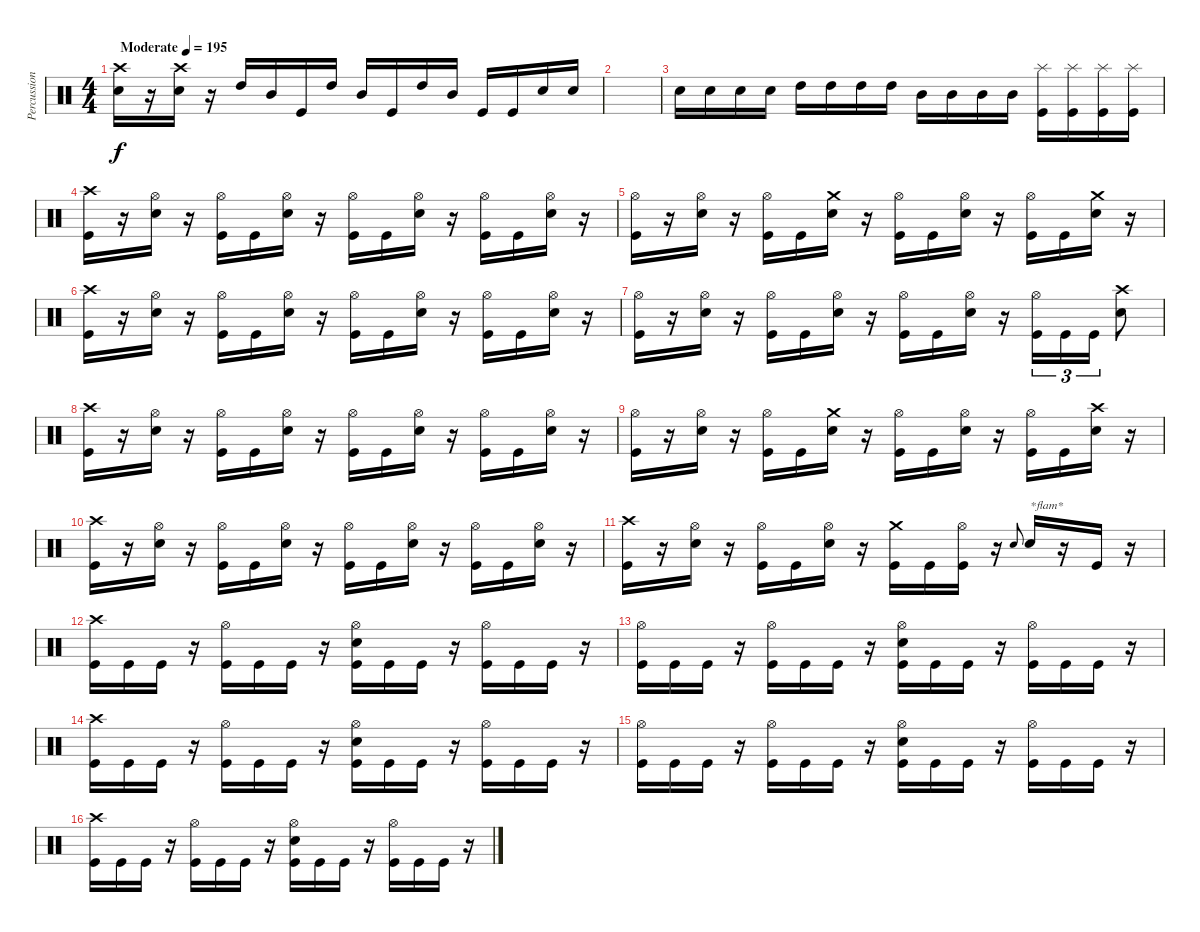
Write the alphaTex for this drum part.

\track ("Percussion" "Percussion") {instrument percussion}
\staff {score}
\articulation defaults
\ts (4 4)
\tempo (195 "Moderate")
\clef neutral
\ks c
("Crash high (hit)" "Electric Snare (hit)").16{dy f} r.16 ("Crash high (hit)" "Electric Snare (hit)").16 r.16 "High Tom (hit)".16 "Mid Tom (hit)".16 "Kick (hit)".16 "High Tom (hit)".16 "Mid Tom (hit)".16 "Kick (hit)".16 "High Tom (hit)".16 "Mid Tom (hit)".16 "Kick (hit)".16 "Kick (hit)".16 "Electric Snare (hit)".16 "Electric Snare (hit)".16 |
|
"Electric Snare (hit)".16 "Electric Snare (hit)".16 "Electric Snare (hit)".16 "Electric Snare (hit)".16 "High Tom (hit)".16 "High Tom (hit)".16 "High Tom (hit)".16 "High Tom (hit)".16 "Mid Tom (hit)".16 "Mid Tom (hit)".16 "Mid Tom (hit)".16 "Mid Tom (hit)".16 ("Splash (hit)" "Kick (hit)").16 ("Splash (hit)" "Kick (hit)").16 ("Splash (hit)" "Kick (hit)").16 ("Splash (hit)" "Kick (hit)").16 |
("Crash high (hit)" "Kick (hit)").16 r.16 ("Hi-Hat (open)" "Electric Snare (hit)").16 r.16 ("Hi-Hat (open)" "Kick (hit)").16 "Kick (hit)".16 ("Hi-Hat (open)" "Electric Snare (hit)").16 r.16 ("Hi-Hat (open)" "Kick (hit)").16 "Kick (hit)".16 ("Hi-Hat (open)" "Electric Snare (hit)").16 r.16 ("Hi-Hat (open)" "Kick (hit)").16 "Kick (hit)".16 ("Hi-Hat (open)" "Electric Snare (hit)").16 r.16 |
("Hi-Hat (open)" "Kick (hit)").16 r.16 ("Hi-Hat (open)" "Electric Snare (hit)").16 r.16 ("Hi-Hat (open)" "Kick (hit)").16 "Kick (hit)".16 ("Crash medium (hit)" "Electric Snare (hit)").16 r.16 ("Hi-Hat (open)" "Kick (hit)").16 "Kick (hit)".16 ("Hi-Hat (open)" "Electric Snare (hit)").16 r.16 ("Hi-Hat (open)" "Kick (hit)").16 "Kick (hit)".16 ("Crash medium (hit)" "Electric Snare (hit)").16 r.16 |
("Crash high (hit)" "Kick (hit)").16 r.16 ("Hi-Hat (open)" "Electric Snare (hit)").16 r.16 ("Hi-Hat (open)" "Kick (hit)").16 "Kick (hit)".16 ("Hi-Hat (open)" "Electric Snare (hit)").16 r.16 ("Hi-Hat (open)" "Kick (hit)").16 "Kick (hit)".16 ("Hi-Hat (open)" "Electric Snare (hit)").16 r.16 ("Hi-Hat (open)" "Kick (hit)").16 "Kick (hit)".16 ("Hi-Hat (open)" "Electric Snare (hit)").16 r.16 |
("Hi-Hat (open)" "Kick (hit)").16 r.16 ("Hi-Hat (open)" "Electric Snare (hit)").16 r.16 ("Hi-Hat (open)" "Kick (hit)").16 "Kick (hit)".16 ("Hi-Hat (open)" "Electric Snare (hit)").16 r.16 ("Hi-Hat (open)" "Kick (hit)").16 "Kick (hit)".16 ("Hi-Hat (open)" "Electric Snare (hit)").16 r.16 ("Hi-Hat (open)" "Kick (hit)").16{tu (3 2)} "Kick (hit)".16{tu (3 2)} "Kick (hit)".16{tu (3 2)} ("Crash high (hit)" "Electric Snare (hit)").8 |
("Crash high (hit)" "Kick (hit)").16 r.16 ("Hi-Hat (open)" "Electric Snare (hit)").16 r.16 ("Hi-Hat (open)" "Kick (hit)").16 "Kick (hit)".16 ("Hi-Hat (open)" "Electric Snare (hit)").16 r.16 ("Hi-Hat (open)" "Kick (hit)").16 "Kick (hit)".16 ("Hi-Hat (open)" "Electric Snare (hit)").16 r.16 ("Hi-Hat (open)" "Kick (hit)").16 "Kick (hit)".16 ("Hi-Hat (open)" "Electric Snare (hit)").16 r.16 |
("Hi-Hat (open)" "Kick (hit)").16 r.16 ("Hi-Hat (open)" "Electric Snare (hit)").16 r.16 ("Hi-Hat (open)" "Kick (hit)").16 "Kick (hit)".16 ("Crash medium (hit)" "Electric Snare (hit)").16 r.16 ("Hi-Hat (open)" "Kick (hit)").16 "Kick (hit)".16 ("Hi-Hat (open)" "Electric Snare (hit)").16 r.16 ("Hi-Hat (open)" "Kick (hit)").16 "Kick (hit)".16 ("Crash high (hit)" "Electric Snare (hit)").16 r.16 |
("Crash high (hit)" "Kick (hit)").16 r.16 ("Hi-Hat (open)" "Electric Snare (hit)").16 r.16 ("Hi-Hat (open)" "Kick (hit)").16 "Kick (hit)".16 ("Hi-Hat (open)" "Electric Snare (hit)").16 r.16 ("Hi-Hat (open)" "Kick (hit)").16 "Kick (hit)".16 ("Hi-Hat (open)" "Electric Snare (hit)").16 r.16 ("Hi-Hat (open)" "Kick (hit)").16 "Kick (hit)".16 ("Hi-Hat (open)" "Electric Snare (hit)").16 r.16 |
("Crash high (hit)" "Kick (hit)").16 r.16 ("Hi-Hat (open)" "Electric Snare (hit)").16 r.16 ("Hi-Hat (open)" "Kick (hit)").16 "Kick (hit)".16 ("Hi-Hat (open)" "Electric Snare (hit)").16 r.16 ("Crash medium (hit)" "Kick (hit)").16 "Kick (hit)".16 ("Hi-Hat (open)" "Kick (hit)").16 r.16 "Electric Snare (hit)".8{gr onbeat} "Electric Snare (hit)".16{txt "*flam*"} r.16 "Kick (hit)".16 r.16 |
("Crash high (hit)" "Kick (hit)").16 "Kick (hit)".16 "Kick (hit)".16 r.16 ("Hi-Hat (open)" "Kick (hit)").16 "Kick (hit)".16 "Kick (hit)".16 r.16 ("Hi-Hat (open)" "Electric Snare (hit)" "Kick (hit)").16 "Kick (hit)".16 "Kick (hit)".16 r.16 ("Hi-Hat (open)" "Kick (hit)").16 "Kick (hit)".16 "Kick (hit)".16 r.16 |
("Hi-Hat (open)" "Kick (hit)").16 "Kick (hit)".16 "Kick (hit)".16 r.16 ("Hi-Hat (open)" "Kick (hit)").16 "Kick (hit)".16 "Kick (hit)".16 r.16 ("Hi-Hat (open)" "Electric Snare (hit)" "Kick (hit)").16 "Kick (hit)".16 "Kick (hit)".16 r.16 ("Hi-Hat (open)" "Kick (hit)").16 "Kick (hit)".16 "Kick (hit)".16 r.16 |
("Crash high (hit)" "Kick (hit)").16 "Kick (hit)".16 "Kick (hit)".16 r.16 ("Hi-Hat (open)" "Kick (hit)").16 "Kick (hit)".16 "Kick (hit)".16 r.16 ("Hi-Hat (open)" "Electric Snare (hit)" "Kick (hit)").16 "Kick (hit)".16 "Kick (hit)".16 r.16 ("Hi-Hat (open)" "Kick (hit)").16 "Kick (hit)".16 "Kick (hit)".16 r.16 |
("Hi-Hat (open)" "Kick (hit)").16 "Kick (hit)".16 "Kick (hit)".16 r.16 ("Hi-Hat (open)" "Kick (hit)").16 "Kick (hit)".16 "Kick (hit)".16 r.16 ("Hi-Hat (open)" "Electric Snare (hit)" "Kick (hit)").16 "Kick (hit)".16 "Kick (hit)".16 r.16 ("Hi-Hat (open)" "Kick (hit)").16 "Kick (hit)".16 "Kick (hit)".16 r.16 |
("Crash high (hit)" "Kick (hit)").16 "Kick (hit)".16 "Kick (hit)".16 r.16 ("Hi-Hat (open)" "Kick (hit)").16 "Kick (hit)".16 "Kick (hit)".16 r.16 ("Hi-Hat (open)" "Electric Snare (hit)" "Kick (hit)").16 "Kick (hit)".16 "Kick (hit)".16 r.16 ("Hi-Hat (open)" "Kick (hit)").16 "Kick (hit)".16 "Kick (hit)".16 r.16
